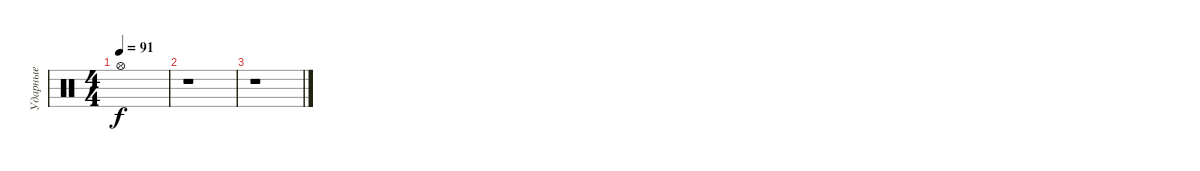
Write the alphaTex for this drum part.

\track ("Ударные" "Ударные") {instrument percussion}
\staff {score}
\articulation defaults
\ts (4 4)
\tempo 91
\clef neutral
\ks c "Hi-Hat (open)".1{dy f}
|
r.1 |
r.1
